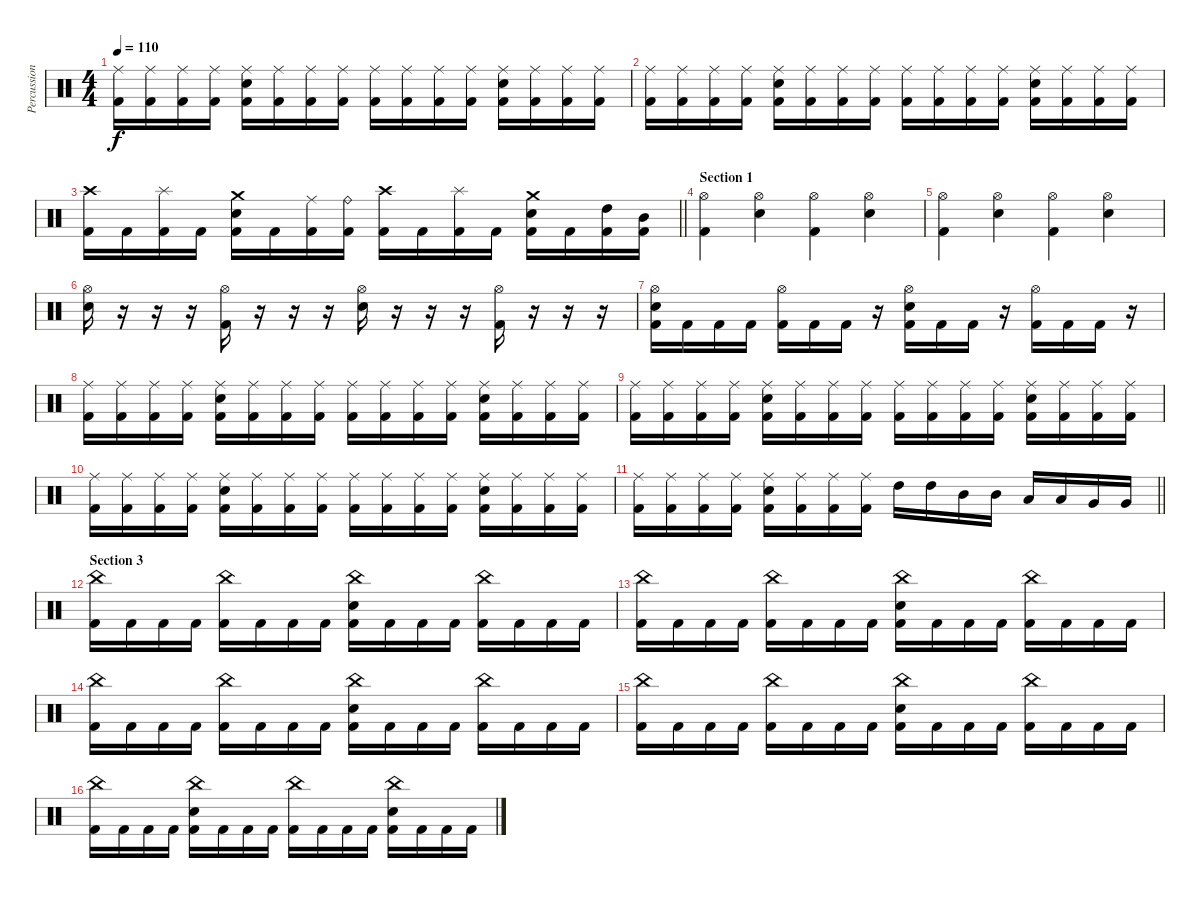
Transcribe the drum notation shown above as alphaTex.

\track ("Percussions" "Percussion") {instrument percussion}
\staff {score}
\articulation defaults
\ts (4 4)
\tempo 110
\clef neutral
\ks c
("Kick (hit) 2" "Ride (middle)").16{dy f} ("Kick (hit) 2" "Ride (middle)").16 ("Kick (hit) 2" "Ride (middle)").16 ("Kick (hit) 2" "Ride (middle)").16 ("Kick (hit) 2" "Electric Snare (hit)" "Ride (middle)").16 ("Kick (hit) 2" "Ride (middle)").16 ("Kick (hit) 2" "Ride (middle)").16 ("Kick (hit) 2" "Ride (middle)").16 ("Kick (hit) 2" "Ride (middle)").16 ("Kick (hit) 2" "Ride (middle)").16 ("Kick (hit) 2" "Ride (middle)").16 ("Kick (hit) 2" "Ride (middle)").16 ("Kick (hit) 2" "Electric Snare (hit)" "Ride (middle)").16 ("Kick (hit) 2" "Ride (middle)").16 ("Kick (hit) 2" "Ride (middle)").16 ("Kick (hit) 2" "Ride (middle)").16 |
("Kick (hit) 2" "Ride (middle)").16 ("Kick (hit) 2" "Ride (middle)").16 ("Kick (hit) 2" "Ride (middle)").16 ("Kick (hit) 2" "Ride (middle)").16 ("Kick (hit) 2" "Electric Snare (hit)" "Ride (middle)").16 ("Kick (hit) 2" "Ride (middle)").16 ("Kick (hit) 2" "Ride (middle)").16 ("Kick (hit) 2" "Ride (middle)").16 ("Kick (hit) 2" "Ride (middle)").16 ("Kick (hit) 2" "Ride (middle)").16 ("Kick (hit) 2" "Ride (middle)").16 ("Kick (hit) 2" "Ride (middle)").16 ("Kick (hit) 2" "Electric Snare (hit)" "Ride (middle)").16 ("Kick (hit) 2" "Ride (middle)").16 ("Kick (hit) 2" "Ride (middle)").16 ("Kick (hit) 2" "Ride (middle)").16 |
\barLineRight lightlight
("Kick (hit) 2" "Crash high (hit)").16 "Kick (hit) 2".16 ("Kick (hit) 2" "Splash (hit)").16 "Kick (hit) 2".16 ("Kick (hit) 2" "Electric Snare (hit)" "Crash medium (hit)").16 "Kick (hit) 2".16 ("Kick (hit) 2" "Ride (middle)").16 ("Kick (hit) 2" "Ride (bell)").16 ("Kick (hit) 2" "Crash high (hit)").16 "Kick (hit) 2".16 ("Kick (hit) 2" "Splash (hit)").16 "Kick (hit) 2".16 ("Kick (hit) 2" "Electric Snare (hit)" "Crash medium (hit)").16 "Kick (hit) 2".16 ("Kick (hit) 2" "High Tom (hit)").16 ("Kick (hit) 2" "Mid Tom (hit)").16 |
\section ("" "Section 1")
("Kick (hit) 2" "Hi-Hat (open)").4 ("Electric Snare (hit)" "Hi-Hat (open)").4 ("Kick (hit) 2" "Hi-Hat (open)").4 ("Electric Snare (hit)" "Hi-Hat (open)").4 |
("Kick (hit) 2" "Hi-Hat (open)").4 ("Electric Snare (hit)" "Hi-Hat (open)").4 ("Kick (hit) 2" "Hi-Hat (open)").4 ("Electric Snare (hit)" "Hi-Hat (open)").4 |
("Electric Snare (hit)" "Hi-Hat (open)").16 r.16 r.16 r.16 ("Kick (hit) 2" "Hi-Hat (open)").16 r.16 r.16 r.16 ("Electric Snare (hit)" "Hi-Hat (open)").16 r.16 r.16 r.16 ("Kick (hit) 2" "Hi-Hat (open)").16 r.16 r.16 r.16 |
("Kick (hit) 2" "Electric Snare (hit)" "Hi-Hat (open)").16 "Kick (hit) 2".16 "Kick (hit) 2".16 "Kick (hit) 2".16 ("Kick (hit) 2" "Hi-Hat (open)").16 "Kick (hit) 2".16 "Kick (hit) 2".16 r.16 ("Kick (hit) 2" "Electric Snare (hit)" "Hi-Hat (open)").16 "Kick (hit) 2".16 "Kick (hit) 2".16 r.16 ("Kick (hit) 2" "Hi-Hat (open)").16 "Kick (hit) 2".16 "Kick (hit) 2".16 r.16 |
("Kick (hit) 2" "Ride (middle)").16 ("Kick (hit) 2" "Ride (middle)").16 ("Kick (hit) 2" "Ride (middle)").16 ("Kick (hit) 2" "Ride (middle)").16 ("Kick (hit) 2" "Electric Snare (hit)" "Ride (middle)").16 ("Kick (hit) 2" "Ride (middle)").16 ("Kick (hit) 2" "Ride (middle)").16 ("Kick (hit) 2" "Ride (middle)").16 ("Kick (hit) 2" "Ride (middle)").16 ("Kick (hit) 2" "Ride (middle)").16 ("Kick (hit) 2" "Ride (middle)").16 ("Kick (hit) 2" "Ride (middle)").16 ("Kick (hit) 2" "Electric Snare (hit)" "Ride (middle)").16 ("Kick (hit) 2" "Ride (middle)").16 ("Kick (hit) 2" "Ride (middle)").16 ("Kick (hit) 2" "Ride (middle)").16 |
("Kick (hit) 2" "Ride (middle)").16 ("Kick (hit) 2" "Ride (middle)").16 ("Kick (hit) 2" "Ride (middle)").16 ("Kick (hit) 2" "Ride (middle)").16 ("Kick (hit) 2" "Electric Snare (hit)" "Ride (middle)").16 ("Kick (hit) 2" "Ride (middle)").16 ("Kick (hit) 2" "Ride (middle)").16 ("Kick (hit) 2" "Ride (middle)").16 ("Kick (hit) 2" "Ride (middle)").16 ("Kick (hit) 2" "Ride (middle)").16 ("Kick (hit) 2" "Ride (middle)").16 ("Kick (hit) 2" "Ride (middle)").16 ("Kick (hit) 2" "Electric Snare (hit)" "Ride (middle)").16 ("Kick (hit) 2" "Ride (middle)").16 ("Kick (hit) 2" "Ride (middle)").16 ("Kick (hit) 2" "Ride (middle)").16 |
("Kick (hit) 2" "Ride (middle)").16 ("Kick (hit) 2" "Ride (middle)").16 ("Kick (hit) 2" "Ride (middle)").16 ("Kick (hit) 2" "Ride (middle)").16 ("Kick (hit) 2" "Electric Snare (hit)" "Ride (middle)").16 ("Kick (hit) 2" "Ride (middle)").16 ("Kick (hit) 2" "Ride (middle)").16 ("Kick (hit) 2" "Ride (middle)").16 ("Kick (hit) 2" "Ride (middle)").16 ("Kick (hit) 2" "Ride (middle)").16 ("Kick (hit) 2" "Ride (middle)").16 ("Kick (hit) 2" "Ride (middle)").16 ("Kick (hit) 2" "Electric Snare (hit)" "Ride (middle)").16 ("Kick (hit) 2" "Ride (middle)").16 ("Kick (hit) 2" "Ride (middle)").16 ("Kick (hit) 2" "Ride (middle)").16 |
\barLineRight lightlight
("Kick (hit) 2" "Ride (middle)").16 ("Kick (hit) 2" "Ride (middle)").16 ("Kick (hit) 2" "Ride (middle)").16 ("Kick (hit) 2" "Ride (middle)").16 ("Kick (hit) 2" "Electric Snare (hit)" "Ride (middle)").16 ("Kick (hit) 2" "Ride (middle)").16 ("Kick (hit) 2" "Ride (middle)").16 ("Kick (hit) 2" "Ride (middle)").16 "High Tom (hit)".16 "High Tom (hit)".16 "Mid Tom (hit)".16 "Mid Tom (hit)".16 "Low Tom (hit)".16 "Low Tom (hit)".16 "Very Low Tom (hit)".16 "Very Low Tom (hit)".16 |
\section ("" "Section 3")
("Kick (hit) 2" "China (hit)").16 "Kick (hit) 2".16 "Kick (hit) 2".16 "Kick (hit) 2".16 ("Kick (hit) 2" "China (hit)").16 "Kick (hit) 2".16 "Kick (hit) 2".16 "Kick (hit) 2".16 ("Kick (hit) 2" "Electric Snare (hit)" "China (hit)").16 "Kick (hit) 2".16 "Kick (hit) 2".16 "Kick (hit) 2".16 ("Kick (hit) 2" "China (hit)").16 "Kick (hit) 2".16 "Kick (hit) 2".16 "Kick (hit) 2".16 |
("Kick (hit) 2" "China (hit)").16 "Kick (hit) 2".16 "Kick (hit) 2".16 "Kick (hit) 2".16 ("Kick (hit) 2" "China (hit)").16 "Kick (hit) 2".16 "Kick (hit) 2".16 "Kick (hit) 2".16 ("Kick (hit) 2" "Electric Snare (hit)" "China (hit)").16 "Kick (hit) 2".16 "Kick (hit) 2".16 "Kick (hit) 2".16 ("Kick (hit) 2" "China (hit)").16 "Kick (hit) 2".16 "Kick (hit) 2".16 "Kick (hit) 2".16 |
("Kick (hit) 2" "China (hit)").16 "Kick (hit) 2".16 "Kick (hit) 2".16 "Kick (hit) 2".16 ("Kick (hit) 2" "China (hit)").16 "Kick (hit) 2".16 "Kick (hit) 2".16 "Kick (hit) 2".16 ("Kick (hit) 2" "Electric Snare (hit)" "China (hit)").16 "Kick (hit) 2".16 "Kick (hit) 2".16 "Kick (hit) 2".16 ("Kick (hit) 2" "China (hit)").16 "Kick (hit) 2".16 "Kick (hit) 2".16 "Kick (hit) 2".16 |
("Kick (hit) 2" "China (hit)").16 "Kick (hit) 2".16 "Kick (hit) 2".16 "Kick (hit) 2".16 ("Kick (hit) 2" "China (hit)").16 "Kick (hit) 2".16 "Kick (hit) 2".16 "Kick (hit) 2".16 ("Kick (hit) 2" "Electric Snare (hit)" "China (hit)").16 "Kick (hit) 2".16 "Kick (hit) 2".16 "Kick (hit) 2".16 ("Kick (hit) 2" "China (hit)").16 "Kick (hit) 2".16 "Kick (hit) 2".16 "Kick (hit) 2".16 |
("Kick (hit) 2" "China (hit)").16 "Kick (hit) 2".16 "Kick (hit) 2".16 "Kick (hit) 2".16 ("Kick (hit) 2" "Electric Snare (hit)" "China (hit)").16 "Kick (hit) 2".16 "Kick (hit) 2".16 "Kick (hit) 2".16 ("Kick (hit) 2" "China (hit)").16 "Kick (hit) 2".16 "Kick (hit) 2".16 "Kick (hit) 2".16 ("Kick (hit) 2" "Electric Snare (hit)" "China (hit)").16 "Kick (hit) 2".16 "Kick (hit) 2".16 "Kick (hit) 2".16
